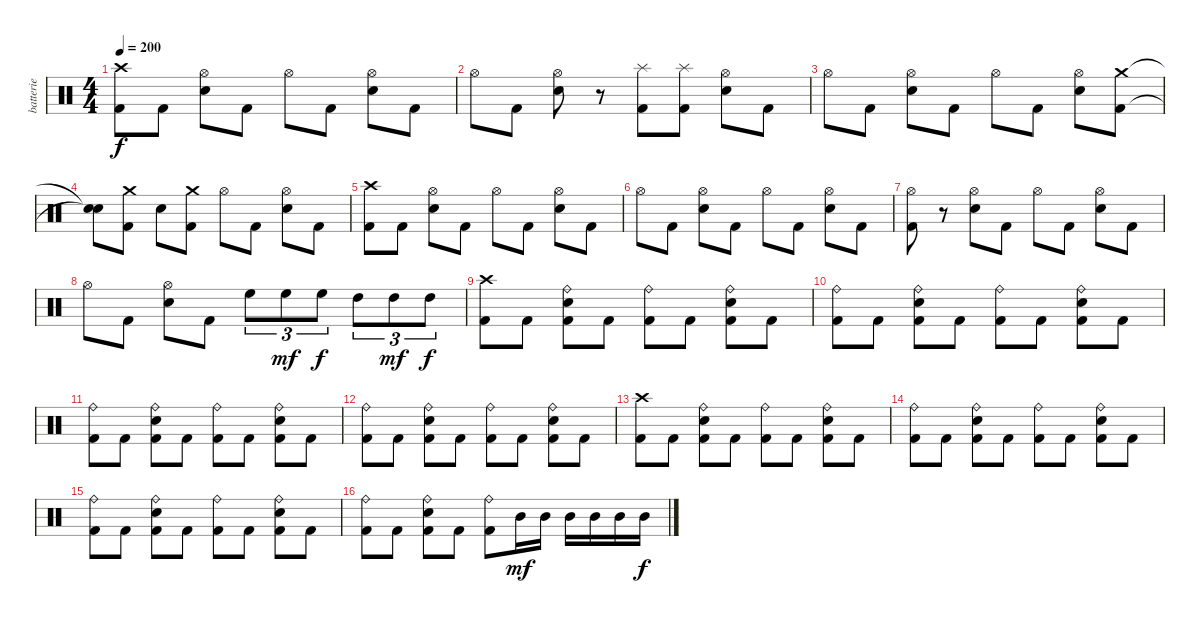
\track ("batterie" "batterie") {instrument percussion}
\staff {score}
\articulation defaults
\ts (4 4)
\tempo 200
\clef neutral
\ks c
("Kick (hit) 2" "Crash high (hit)").8{dy f} "Kick (hit) 2".8 ("Electric Snare (hit)" "Hi-Hat (open)").8 "Kick (hit) 2".8 "Hi-Hat (open)".8 "Kick (hit) 2".8 ("Electric Snare (hit)" "Hi-Hat (open)").8 "Kick (hit) 2".8 |
"Hi-Hat (open)".8 "Kick (hit) 2".8 ("Electric Snare (hit)" "Hi-Hat (open)").8 r.8 ("Kick (hit) 2" "Splash (hit)").8 ("Kick (hit) 2" "Splash (hit)").8 ("Electric Snare (hit)" "Hi-Hat (open)").8 "Kick (hit) 2".8 |
"Hi-Hat (open)".8 "Kick (hit) 2".8 ("Electric Snare (hit)" "Hi-Hat (open)").8 "Kick (hit) 2".8 "Hi-Hat (open)".8 "Kick (hit) 2".8 ("Electric Snare (hit)" "Hi-Hat (open)").8 ("Kick (hit) 2" "Crash medium (hit)").8 |
("Snare (hit)"{t} "Snare (hit)"{t}).8 ("Kick (hit) 2" "Crash medium (hit)").8 "Electric Snare (hit)".8 ("Kick (hit) 2" "Crash medium (hit)").8 "Hi-Hat (open)".8 "Kick (hit) 2".8 ("Electric Snare (hit)" "Hi-Hat (open)").8 "Kick (hit) 2".8 |
("Kick (hit) 2" "Crash high (hit)").8 "Kick (hit) 2".8 ("Electric Snare (hit)" "Hi-Hat (open)").8 "Kick (hit) 2".8 "Hi-Hat (open)".8 "Kick (hit) 2".8 ("Electric Snare (hit)" "Hi-Hat (open)").8 "Kick (hit) 2".8 |
"Hi-Hat (open)".8 "Kick (hit) 2".8 ("Electric Snare (hit)" "Hi-Hat (open)").8 "Kick (hit) 2".8 "Hi-Hat (open)".8 "Kick (hit) 2".8 ("Electric Snare (hit)" "Hi-Hat (open)").8 "Kick (hit) 2".8 |
("Kick (hit) 2" "Hi-Hat (open)").8 r.8 ("Electric Snare (hit)" "Hi-Hat (open)").8 "Kick (hit) 2".8 "Hi-Hat (open)".8 "Kick (hit) 2".8 ("Electric Snare (hit)" "Hi-Hat (open)").8 "Kick (hit) 2".8 |
"Hi-Hat (open)".8 "Kick (hit) 2".8 ("Electric Snare (hit)" "Hi-Hat (open)").8 "Kick (hit) 2".8 "High Floor Tom (hit)".8{tu (3 2)} "High Floor Tom (hit)".8{tu (3 2) dy mf} "High Floor Tom (hit)".8{tu (3 2) dy f} "High Tom (hit)".8{tu (3 2)} "High Tom (hit)".8{tu (3 2) dy mf} "High Tom (hit)".8{tu (3 2) dy f} |
("Kick (hit) 2" "Crash high (hit)").8 "Kick (hit) 2".8 ("Kick (hit) 2" "Electric Snare (hit)" "Ride (bell)").8 "Kick (hit) 2".8 ("Kick (hit) 2" "Ride (bell)").8 "Kick (hit) 2".8 ("Kick (hit) 2" "Electric Snare (hit)" "Ride (bell)").8 "Kick (hit) 2".8 |
("Kick (hit) 2" "Ride (bell)").8 "Kick (hit) 2".8 ("Kick (hit) 2" "Electric Snare (hit)" "Ride (bell)").8 "Kick (hit) 2".8 ("Kick (hit) 2" "Ride (bell)").8 "Kick (hit) 2".8 ("Kick (hit) 2" "Electric Snare (hit)" "Ride (bell)").8 "Kick (hit) 2".8 |
("Kick (hit) 2" "Ride (bell)").8 "Kick (hit) 2".8 ("Kick (hit) 2" "Electric Snare (hit)" "Ride (bell)").8 "Kick (hit) 2".8 ("Kick (hit) 2" "Ride (bell)").8 "Kick (hit) 2".8 ("Kick (hit) 2" "Electric Snare (hit)" "Ride (bell)").8 "Kick (hit) 2".8 |
("Kick (hit) 2" "Ride (bell)").8 "Kick (hit) 2".8 ("Kick (hit) 2" "Electric Snare (hit)" "Ride (bell)").8 "Kick (hit) 2".8 ("Kick (hit) 2" "Ride (bell)").8 "Kick (hit) 2".8 ("Kick (hit) 2" "Electric Snare (hit)" "Ride (bell)").8 "Kick (hit) 2".8 |
("Kick (hit) 2" "Crash high (hit)").8 "Kick (hit) 2".8 ("Kick (hit) 2" "Electric Snare (hit)" "Ride (bell)").8 "Kick (hit) 2".8 ("Kick (hit) 2" "Ride (bell)").8 "Kick (hit) 2".8 ("Kick (hit) 2" "Electric Snare (hit)" "Ride (bell)").8 "Kick (hit) 2".8 |
("Kick (hit) 2" "Ride (bell)").8 "Kick (hit) 2".8 ("Kick (hit) 2" "Electric Snare (hit)" "Ride (bell)").8 "Kick (hit) 2".8 ("Kick (hit) 2" "Ride (bell)").8 "Kick (hit) 2".8 ("Kick (hit) 2" "Electric Snare (hit)" "Ride (bell)").8 "Kick (hit) 2".8 |
("Kick (hit) 2" "Ride (bell)").8 "Kick (hit) 2".8 ("Kick (hit) 2" "Electric Snare (hit)" "Ride (bell)").8 "Kick (hit) 2".8 ("Kick (hit) 2" "Ride (bell)").8 "Kick (hit) 2".8 ("Kick (hit) 2" "Electric Snare (hit)" "Ride (bell)").8 "Kick (hit) 2".8 |
("Kick (hit) 2" "Ride (bell)").8 "Kick (hit) 2".8 ("Kick (hit) 2" "Electric Snare (hit)" "Ride (bell)").8 "Kick (hit) 2".8 ("Kick (hit) 2" "Ride (bell)").8 "Mid Tom (hit)".16{dy mf} "Mid Tom (hit)".16 "Mid Tom (hit)".16 "Mid Tom (hit)".16 "Mid Tom (hit)".16 "Mid Tom (hit)".16{dy f}
